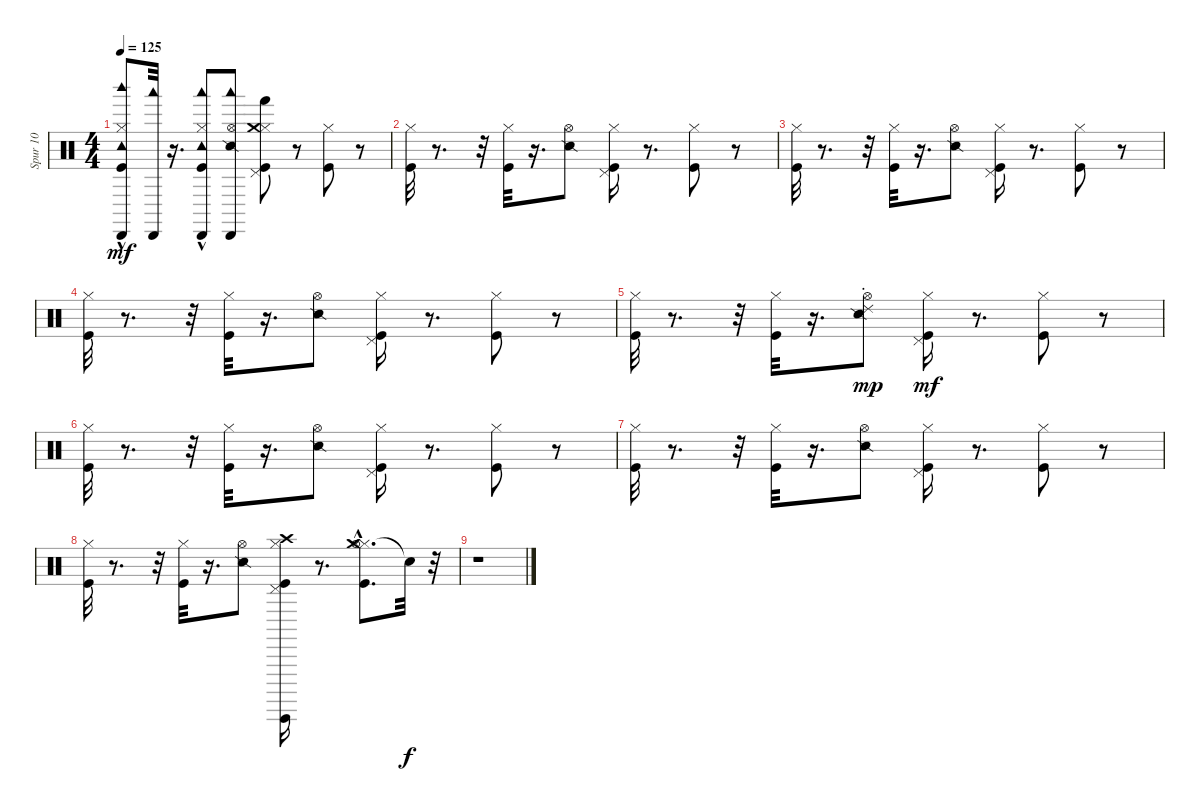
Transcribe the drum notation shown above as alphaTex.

\track ("Spur 10" "Spur 10") {instrument percussion}
\staff {score}
\articulation defaults
\ts (4 4)
\tempo 125
\clef neutral
\ks c
("Woodblock high (hit)" "Cabasa (hit)" "Tambourine (hit)"{hac} "Hi-Hat (closed)" "Kick (hit)").8{dy mf} ("Woodblock low (hit)" "Cabasa (hit)").32 r.16{d} ("Woodblock low (hit)" "Cabasa (hit)" "Tambourine (hit)"{hac} "Hi-Hat (closed)" "Kick (hit)").8 ("Woodblock low (hit)" "Cabasa (hit)" "Hi-Hat (open)" "Snare (side stick) 2").8 ("Pedal Hi-Hat (hit)" "Kick (hit)" "Hi-Hat (closed)" "Hand (hit)" "Crash medium (hit)").8 r.8 ("Hi-Hat (closed)" "Kick (hit)").8 r.8 |
("Hi-Hat (closed)" "Kick (hit)").32 r.8{d} r.32 ("Hi-Hat (closed)" "Kick (hit)").32 r.16{d} ("Hi-Hat (open)" "Snare (side stick) 2").8 ("Pedal Hi-Hat (hit)" "Kick (hit)" "Hi-Hat (closed)").16 r.8{d} ("Hi-Hat (closed)" "Kick (hit)").8 r.8 |
("Hi-Hat (closed)" "Kick (hit)").32 r.8{d} r.32 ("Hi-Hat (closed)" "Kick (hit)").32 r.16{d} ("Hi-Hat (open)" "Snare (side stick) 2").8 ("Pedal Hi-Hat (hit)" "Kick (hit)" "Hi-Hat (closed)").16 r.8{d} ("Hi-Hat (closed)" "Kick (hit)").8 r.8 |
("Hi-Hat (closed)" "Kick (hit)").32 r.8{d} r.32 ("Hi-Hat (closed)" "Kick (hit)").32 r.16{d} ("Hi-Hat (open)" "Snare (side stick) 2").8 ("Pedal Hi-Hat (hit)" "Kick (hit)" "Hi-Hat (closed)").16 r.8{d} ("Hi-Hat (closed)" "Kick (hit)").8 r.8 |
("Hi-Hat (closed)" "Kick (hit)").32 r.8{d} r.32 ("Hi-Hat (closed)" "Kick (hit)").32 r.16{d} ("Hi-Hat (open)" "Snare (side stick) 2" "Ride (choke) 2").8{dy mp} ("Pedal Hi-Hat (hit)" "Kick (hit)" "Hi-Hat (closed)").16{dy mf} r.8{d} ("Hi-Hat (closed)" "Kick (hit)").8 r.8 |
("Hi-Hat (closed)" "Kick (hit)").32 r.8{d} r.32 ("Hi-Hat (closed)" "Kick (hit)").32 r.16{d} ("Hi-Hat (open)" "Snare (side stick) 2").8 ("Pedal Hi-Hat (hit)" "Kick (hit)" "Hi-Hat (closed)").16 r.8{d} ("Hi-Hat (closed)" "Kick (hit)").8 r.8 |
("Hi-Hat (closed)" "Kick (hit)").32 r.8{d} r.32 ("Hi-Hat (closed)" "Kick (hit)").32 r.16{d} ("Hi-Hat (open)" "Snare (side stick) 2").8 ("Pedal Hi-Hat (hit)" "Kick (hit)" "Hi-Hat (closed)").16 r.8{d} ("Hi-Hat (closed)" "Kick (hit)").8 r.8 |
("Hi-Hat (closed)" "Kick (hit)").32 r.8{d} r.32 ("Hi-Hat (closed)" "Kick (hit)").32 r.16{d} ("Hi-Hat (open)" "Snare (side stick) 2").8 ("Pedal Hi-Hat (hit)" "Kick (hit)" "Hi-Hat (closed)" "Guiro (hit)" "Crash high (hit)").16 r.8{d} ("Hi-Hat (closed)" "Kick (hit)" "Hi-Hat (open)"{hac} "Crash medium (hit)").8{d} "Snare (hit)"{t}.32{dy f} r.32 |
r.1
